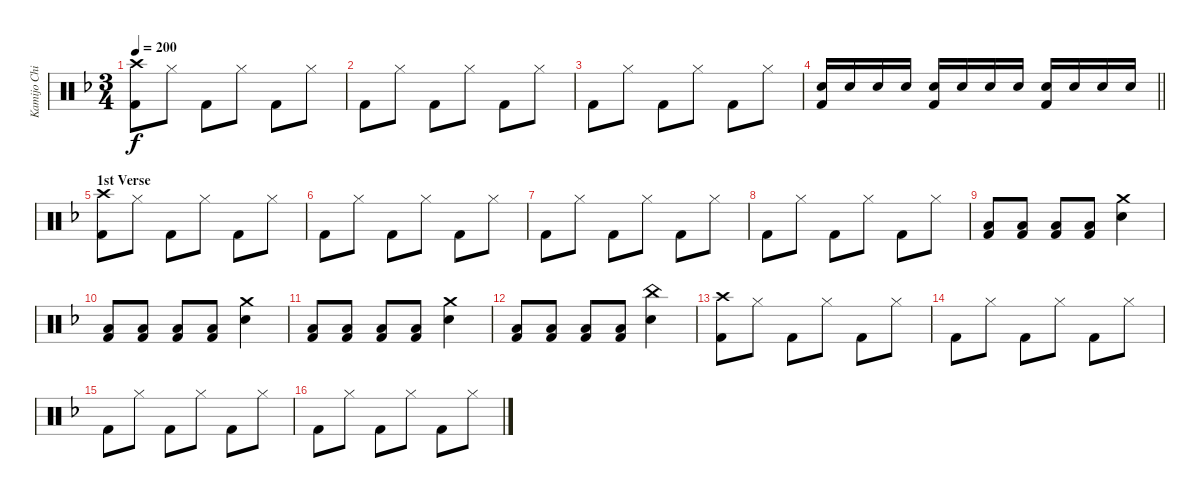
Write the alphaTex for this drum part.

\track ("Kamijo Chihiro" "Kamijo Chi") {instrument percussion}
\staff {score}
\articulation defaults
\ts (3 4)
\tempo 200
\clef neutral
\ks dminor
("Crash high (hit)" "Kick (hit) 2").8{dy f} "Hi-Hat (closed)".8 "Kick (hit) 2".8 "Hi-Hat (closed)".8 "Kick (hit) 2".8 "Hi-Hat (closed)".8 |
"Kick (hit) 2".8 "Hi-Hat (closed)".8 "Kick (hit) 2".8 "Hi-Hat (closed)".8 "Kick (hit) 2".8 "Hi-Hat (closed)".8 |
"Kick (hit) 2".8 "Hi-Hat (closed)".8 "Kick (hit) 2".8 "Hi-Hat (closed)".8 "Kick (hit) 2".8 "Hi-Hat (closed)".8 |
\barLineRight lightlight
("Snare (hit) 2" "Kick (hit) 2").16 "Snare (hit) 2".16 "Snare (hit) 2".16 "Snare (hit) 2".16 ("Snare (hit) 2" "Kick (hit) 2").16 "Snare (hit) 2".16 "Snare (hit) 2".16 "Snare (hit) 2".16 ("Snare (hit) 2" "Kick (hit) 2").16 "Snare (hit) 2".16 "Snare (hit) 2".16 "Snare (hit) 2".16 |
\section ("" "1st Verse")
("Crash high (hit)" "Kick (hit) 2").8 "Hi-Hat (closed)".8 "Kick (hit) 2".8 "Hi-Hat (closed)".8 "Kick (hit) 2".8 "Hi-Hat (closed)".8 |
"Kick (hit) 2".8 "Hi-Hat (closed)".8 "Kick (hit) 2".8 "Hi-Hat (closed)".8 "Kick (hit) 2".8 "Hi-Hat (closed)".8 |
"Kick (hit) 2".8 "Hi-Hat (closed)".8 "Kick (hit) 2".8 "Hi-Hat (closed)".8 "Kick (hit) 2".8 "Hi-Hat (closed)".8 |
"Kick (hit) 2".8 "Hi-Hat (closed)".8 "Kick (hit) 2".8 "Hi-Hat (closed)".8 "Kick (hit) 2".8 "Hi-Hat (closed)".8 |
("Low Floor Tom (hit)" "Kick (hit) 2").8 ("Low Floor Tom (hit)" "Kick (hit) 2").8 ("Low Floor Tom (hit)" "Kick (hit) 2").8 ("Low Floor Tom (hit)" "Kick (hit) 2").8 ("Crash medium (hit)" "Snare (hit) 2").4 |
("Low Floor Tom (hit)" "Kick (hit) 2").8 ("Low Floor Tom (hit)" "Kick (hit) 2").8 ("Low Floor Tom (hit)" "Kick (hit) 2").8 ("Low Floor Tom (hit)" "Kick (hit) 2").8 ("Crash medium (hit)" "Snare (hit) 2").4 |
("Low Floor Tom (hit)" "Kick (hit) 2").8 ("Low Floor Tom (hit)" "Kick (hit) 2").8 ("Low Floor Tom (hit)" "Kick (hit) 2").8 ("Low Floor Tom (hit)" "Kick (hit) 2").8 ("Crash medium (hit)" "Snare (hit) 2").4 |
("Low Floor Tom (hit)" "Kick (hit) 2").8 ("Low Floor Tom (hit)" "Kick (hit) 2").8 ("Low Floor Tom (hit)" "Kick (hit) 2").8 ("Low Floor Tom (hit)" "Kick (hit) 2").8 ("China (hit)" "Snare (hit) 2").4 |
("Crash high (hit)" "Kick (hit) 2").8 "Hi-Hat (closed)".8 "Kick (hit) 2".8 "Hi-Hat (closed)".8 "Kick (hit) 2".8 "Hi-Hat (closed)".8 |
"Kick (hit) 2".8 "Hi-Hat (closed)".8 "Kick (hit) 2".8 "Hi-Hat (closed)".8 "Kick (hit) 2".8 "Hi-Hat (closed)".8 |
"Kick (hit) 2".8 "Hi-Hat (closed)".8 "Kick (hit) 2".8 "Hi-Hat (closed)".8 "Kick (hit) 2".8 "Hi-Hat (closed)".8 |
"Kick (hit) 2".8 "Hi-Hat (closed)".8 "Kick (hit) 2".8 "Hi-Hat (closed)".8 "Kick (hit) 2".8 "Hi-Hat (closed)".8
